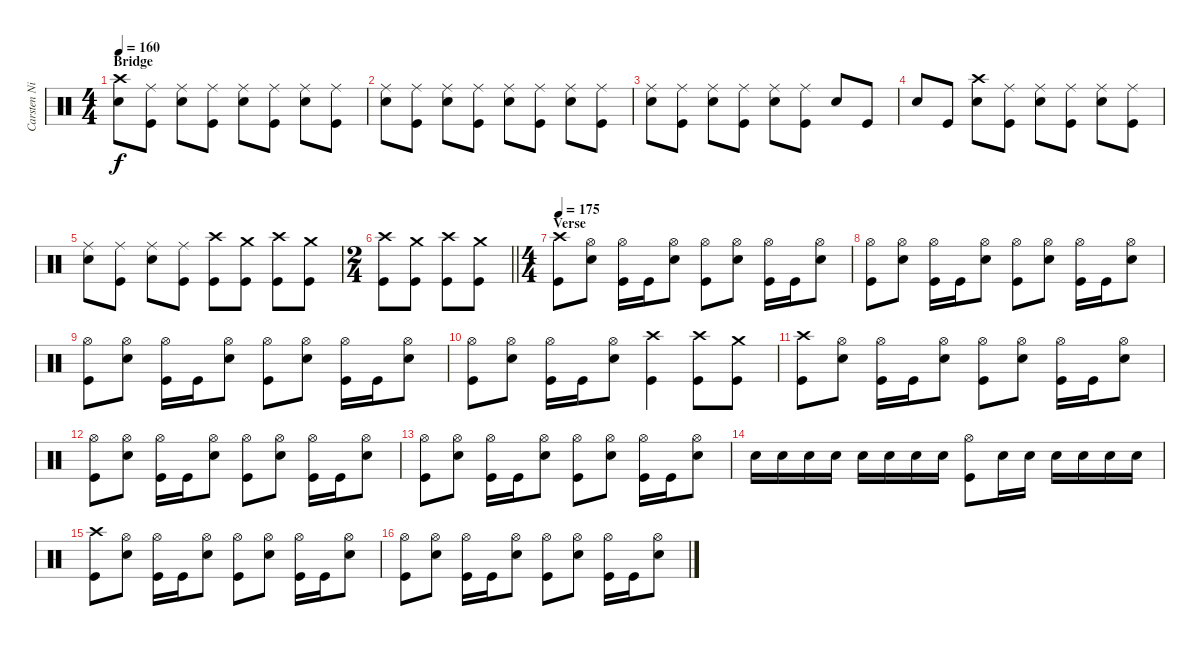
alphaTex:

\track ("Carsten Nielsen" "Carsten Ni") {instrument percussion}
\staff {score}
\articulation defaults
\ts (4 4)
\section ("" "Bridge")
\tempo 160
\clef neutral
\ks c
("Crash high (hit)" "Electric Snare (hit)").8{dy f} ("Ride (middle)" "Kick (hit)").8 ("Ride (middle)" "Electric Snare (hit)").8 ("Ride (middle)" "Kick (hit)").8 ("Ride (middle)" "Electric Snare (hit)").8 ("Ride (middle)" "Kick (hit)").8 ("Ride (middle)" "Electric Snare (hit)").8 ("Ride (middle)" "Kick (hit)").8 |
("Ride (middle)" "Electric Snare (hit)").8 ("Ride (middle)" "Kick (hit)").8 ("Ride (middle)" "Electric Snare (hit)").8 ("Ride (middle)" "Kick (hit)").8 ("Ride (middle)" "Electric Snare (hit)").8 ("Ride (middle)" "Kick (hit)").8 ("Ride (middle)" "Electric Snare (hit)").8 ("Ride (middle)" "Kick (hit)").8 |
("Ride (middle)" "Electric Snare (hit)").8 ("Ride (middle)" "Kick (hit)").8 ("Ride (middle)" "Electric Snare (hit)").8 ("Ride (middle)" "Kick (hit)").8 ("Ride (middle)" "Electric Snare (hit)").8 ("Ride (middle)" "Kick (hit)").8 "Electric Snare (hit)".8 "Kick (hit)".8 |
"Electric Snare (hit)".8 "Kick (hit)".8 ("Crash high (hit)" "Electric Snare (hit)").8 ("Ride (middle)" "Kick (hit)").8 ("Ride (middle)" "Electric Snare (hit)").8 ("Ride (middle)" "Kick (hit)").8 ("Ride (middle)" "Electric Snare (hit)").8 ("Ride (middle)" "Kick (hit)").8 |
("Ride (middle)" "Electric Snare (hit)").8 ("Ride (middle)" "Kick (hit)").8 ("Ride (middle)" "Electric Snare (hit)").8 ("Ride (middle)" "Kick (hit)").8 ("Crash high (hit)" "Kick (hit)").8 ("Crash medium (hit)" "Kick (hit)").8 ("Crash high (hit)" "Kick (hit)").8 ("Crash medium (hit)" "Kick (hit)").8 |
\ts (2 4)
\barLineRight lightlight
("Crash high (hit)" "Kick (hit)").8 ("Crash medium (hit)" "Kick (hit)").8 ("Crash high (hit)" "Kick (hit)").8 ("Crash medium (hit)" "Kick (hit)").8 |
\ts (4 4)
\section ("" "Verse")
\tempo 175
("Crash high (hit)" "Kick (hit)").8 ("Hi-Hat (open)" "Electric Snare (hit)").8 ("Hi-Hat (open)" "Kick (hit)").16 "Kick (hit)".16 ("Hi-Hat (open)" "Electric Snare (hit)").8 ("Hi-Hat (open)" "Kick (hit)").8 ("Hi-Hat (open)" "Electric Snare (hit)").8 ("Hi-Hat (open)" "Kick (hit)").16 "Kick (hit)".16 ("Hi-Hat (open)" "Electric Snare (hit)").8 |
("Hi-Hat (open)" "Kick (hit)").8 ("Hi-Hat (open)" "Electric Snare (hit)").8 ("Hi-Hat (open)" "Kick (hit)").16 "Kick (hit)".16 ("Hi-Hat (open)" "Electric Snare (hit)").8 ("Hi-Hat (open)" "Kick (hit)").8 ("Hi-Hat (open)" "Electric Snare (hit)").8 ("Hi-Hat (open)" "Kick (hit)").16 "Kick (hit)".16 ("Hi-Hat (open)" "Electric Snare (hit)").8 |
("Hi-Hat (open)" "Kick (hit)").8 ("Hi-Hat (open)" "Electric Snare (hit)").8 ("Hi-Hat (open)" "Kick (hit)").16 "Kick (hit)".16 ("Hi-Hat (open)" "Electric Snare (hit)").8 ("Hi-Hat (open)" "Kick (hit)").8 ("Hi-Hat (open)" "Electric Snare (hit)").8 ("Hi-Hat (open)" "Kick (hit)").16 "Kick (hit)".16 ("Hi-Hat (open)" "Electric Snare (hit)").8 |
("Hi-Hat (open)" "Kick (hit)").8 ("Hi-Hat (open)" "Electric Snare (hit)").8 ("Hi-Hat (open)" "Kick (hit)").16 "Kick (hit)".16 ("Hi-Hat (open)" "Electric Snare (hit)").8 ("Crash high (hit)" "Kick (hit)").4 ("Crash high (hit)" "Kick (hit)").8 ("Crash medium (hit)" "Kick (hit)").8 |
("Crash high (hit)" "Kick (hit)").8 ("Hi-Hat (open)" "Electric Snare (hit)").8 ("Hi-Hat (open)" "Kick (hit)").16 "Kick (hit)".16 ("Hi-Hat (open)" "Electric Snare (hit)").8 ("Hi-Hat (open)" "Kick (hit)").8 ("Hi-Hat (open)" "Electric Snare (hit)").8 ("Hi-Hat (open)" "Kick (hit)").16 "Kick (hit)".16 ("Hi-Hat (open)" "Electric Snare (hit)").8 |
("Hi-Hat (open)" "Kick (hit)").8 ("Hi-Hat (open)" "Electric Snare (hit)").8 ("Hi-Hat (open)" "Kick (hit)").16 "Kick (hit)".16 ("Hi-Hat (open)" "Electric Snare (hit)").8 ("Hi-Hat (open)" "Kick (hit)").8 ("Hi-Hat (open)" "Electric Snare (hit)").8 ("Hi-Hat (open)" "Kick (hit)").16 "Kick (hit)".16 ("Hi-Hat (open)" "Electric Snare (hit)").8 |
("Hi-Hat (open)" "Kick (hit)").8 ("Hi-Hat (open)" "Electric Snare (hit)").8 ("Hi-Hat (open)" "Kick (hit)").16 "Kick (hit)".16 ("Hi-Hat (open)" "Electric Snare (hit)").8 ("Hi-Hat (open)" "Kick (hit)").8 ("Hi-Hat (open)" "Electric Snare (hit)").8 ("Hi-Hat (open)" "Kick (hit)").16 "Kick (hit)".16 ("Hi-Hat (open)" "Electric Snare (hit)").8 |
"Electric Snare (hit)".16 "Electric Snare (hit)".16 "Electric Snare (hit)".16 "Electric Snare (hit)".16 "Electric Snare (hit)".16 "Electric Snare (hit)".16 "Electric Snare (hit)".16 "Electric Snare (hit)".16 ("Hi-Hat (open)" "Kick (hit)").8 "Electric Snare (hit)".16 "Electric Snare (hit)".16 "Electric Snare (hit)".16 "Electric Snare (hit)".16 "Electric Snare (hit)".16 "Electric Snare (hit)".16 |
("Crash high (hit)" "Kick (hit)").8 ("Hi-Hat (open)" "Electric Snare (hit)").8 ("Hi-Hat (open)" "Kick (hit)").16 "Kick (hit)".16 ("Hi-Hat (open)" "Electric Snare (hit)").8 ("Hi-Hat (open)" "Kick (hit)").8 ("Hi-Hat (open)" "Electric Snare (hit)").8 ("Hi-Hat (open)" "Kick (hit)").16 "Kick (hit)".16 ("Hi-Hat (open)" "Electric Snare (hit)").8 |
("Hi-Hat (open)" "Kick (hit)").8 ("Hi-Hat (open)" "Electric Snare (hit)").8 ("Hi-Hat (open)" "Kick (hit)").16 "Kick (hit)".16 ("Hi-Hat (open)" "Electric Snare (hit)").8 ("Hi-Hat (open)" "Kick (hit)").8 ("Hi-Hat (open)" "Electric Snare (hit)").8 ("Hi-Hat (open)" "Kick (hit)").16 "Kick (hit)".16 ("Hi-Hat (open)" "Electric Snare (hit)").8
